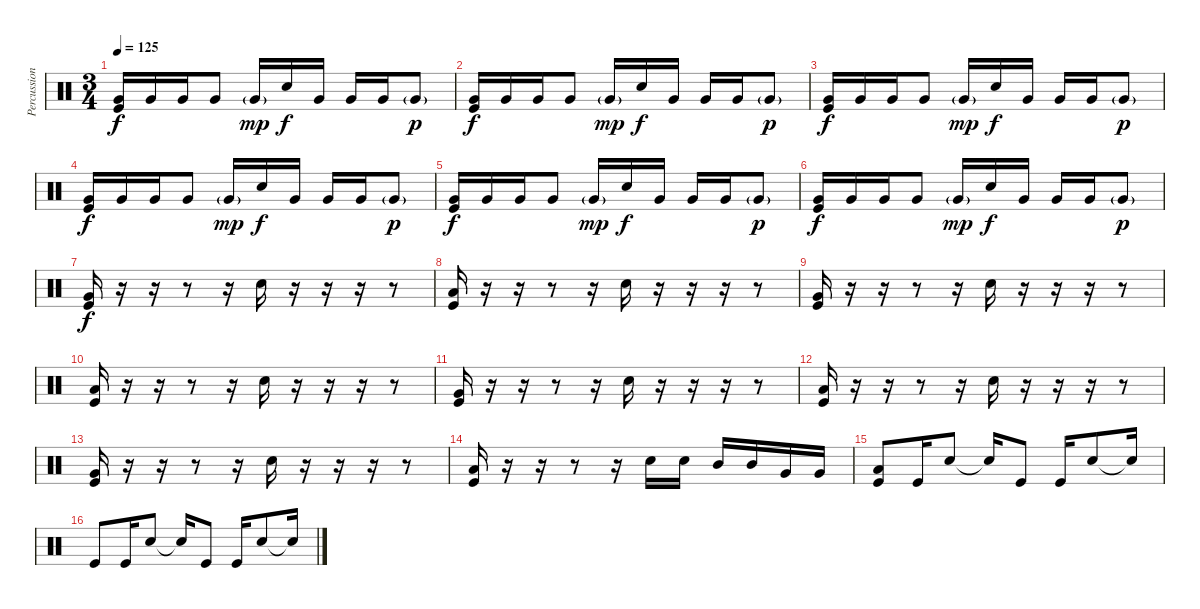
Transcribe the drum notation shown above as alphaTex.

\track ("Percussion" "Percussion") {instrument percussion}
\staff {score}
\articulation defaults
\ts (3 4)
\tempo 125
\clef neutral
\ks c
("Very Low Tom (hit)" "Kick (hit)").16{dy f} "Very Low Tom (hit)".16 "Very Low Tom (hit)".16 "Very Low Tom (hit)".8 "Very Low Tom (hit)"{g}.16{dy mp} "Electric Snare (hit)".16{dy f} "Very Low Tom (hit)".16 "Very Low Tom (hit)".16 "Very Low Tom (hit)".16 "Very Low Tom (hit)"{g}.8{dy p} |
("Very Low Tom (hit)" "Kick (hit)").16{dy f} "Very Low Tom (hit)".16 "Very Low Tom (hit)".16 "Very Low Tom (hit)".8 "Very Low Tom (hit)"{g}.16{dy mp} "Electric Snare (hit)".16{dy f} "Very Low Tom (hit)".16 "Very Low Tom (hit)".16 "Very Low Tom (hit)".16 "Very Low Tom (hit)"{g}.8{dy p} |
("Very Low Tom (hit)" "Kick (hit)").16{dy f} "Very Low Tom (hit)".16 "Very Low Tom (hit)".16 "Very Low Tom (hit)".8 "Very Low Tom (hit)"{g}.16{dy mp} "Electric Snare (hit)".16{dy f} "Very Low Tom (hit)".16 "Very Low Tom (hit)".16 "Very Low Tom (hit)".16 "Very Low Tom (hit)"{g}.8{dy p} |
("Very Low Tom (hit)" "Kick (hit)").16{dy f} "Very Low Tom (hit)".16 "Very Low Tom (hit)".16 "Very Low Tom (hit)".8 "Very Low Tom (hit)"{g}.16{dy mp} "Electric Snare (hit)".16{dy f} "Very Low Tom (hit)".16 "Very Low Tom (hit)".16 "Very Low Tom (hit)".16 "Very Low Tom (hit)"{g}.8{dy p} |
("Very Low Tom (hit)" "Kick (hit)").16{dy f} "Very Low Tom (hit)".16 "Very Low Tom (hit)".16 "Very Low Tom (hit)".8 "Very Low Tom (hit)"{g}.16{dy mp} "Electric Snare (hit)".16{dy f} "Very Low Tom (hit)".16 "Very Low Tom (hit)".16 "Very Low Tom (hit)".16 "Very Low Tom (hit)"{g}.8{dy p} |
("Very Low Tom (hit)" "Kick (hit)").16{dy f} "Very Low Tom (hit)".16 "Very Low Tom (hit)".16 "Very Low Tom (hit)".8 "Very Low Tom (hit)"{g}.16{dy mp} "Electric Snare (hit)".16{dy f} "Very Low Tom (hit)".16 "Very Low Tom (hit)".16 "Very Low Tom (hit)".16 "Very Low Tom (hit)"{g}.8{dy p} |
("Very Low Tom (hit)" "Kick (hit)").16{dy f} r.16 r.16 r.8 r.16 "Electric Snare (hit)".16 r.16 r.16 r.16 r.8 |
("Low Floor Tom (hit)" "Kick (hit)").16 r.16 r.16 r.8 r.16 "Electric Snare (hit)".16 r.16 r.16 r.16 r.8 |
("Very Low Tom (hit)" "Kick (hit)").16 r.16 r.16 r.8 r.16 "Electric Snare (hit)".16 r.16 r.16 r.16 r.8 |
("Low Floor Tom (hit)" "Kick (hit)").16 r.16 r.16 r.8 r.16 "Electric Snare (hit)".16 r.16 r.16 r.16 r.8 |
("Very Low Tom (hit)" "Kick (hit)").16 r.16 r.16 r.8 r.16 "Electric Snare (hit)".16 r.16 r.16 r.16 r.8 |
("Low Floor Tom (hit)" "Kick (hit)").16 r.16 r.16 r.8 r.16 "Electric Snare (hit)".16 r.16 r.16 r.16 r.8 |
("Very Low Tom (hit)" "Kick (hit)").16 r.16 r.16 r.8 r.16 "Electric Snare (hit)".16 r.16 r.16 r.16 r.8 |
("Low Floor Tom (hit)" "Kick (hit)").16 r.16 r.16 r.8 r.16 "Electric Snare (hit)".16 "Electric Snare (hit)".16 "Mid Tom (hit)".16 "Mid Tom (hit)".16 "Very Low Tom (hit)".16 "Very Low Tom (hit)".16 |
("Low Floor Tom (hit)" "Kick (hit)").8 "Kick (hit)".16 "Electric Snare (hit)".8 "Snare (hit)"{t}.16 "Kick (hit)".8 "Kick (hit)".16 "Electric Snare (hit)".8 "Snare (hit)"{t}.16 |
"Kick (hit)".8 "Kick (hit)".16 "Electric Snare (hit)".8 "Snare (hit)"{t}.16 "Kick (hit)".8 "Kick (hit)".16 "Electric Snare (hit)".8 "Snare (hit)"{t}.16
